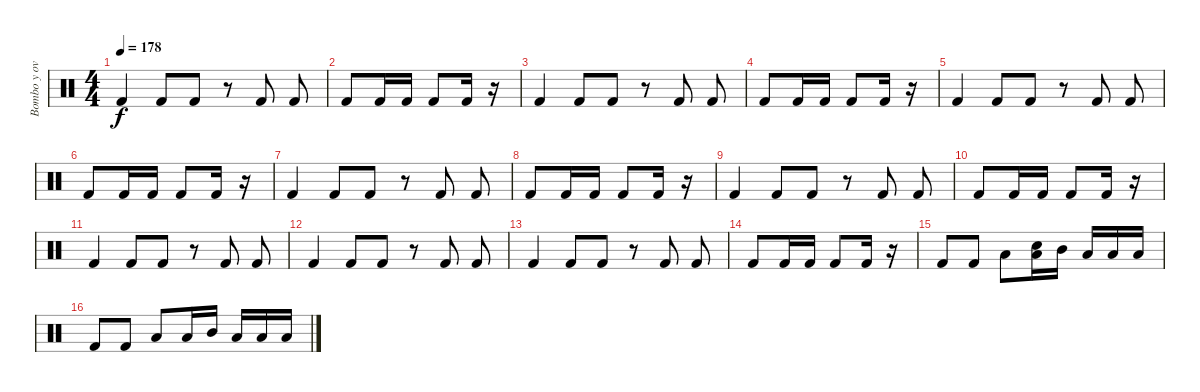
\track ("Bombo y overdubs (bateria)" "Bombo y ov") {instrument percussion}
\staff {score}
\articulation defaults
\ts (4 4)
\tempo 178
\clef neutral
\ks c "Kick (hit) 2".4{dy f} "Kick (hit) 2".8 "Kick (hit) 2".8
r.8 "Kick (hit) 2".8 "Kick (hit) 2".8 |
"Kick (hit) 2".8 "Kick (hit) 2".16 "Kick (hit) 2".16 "Kick (hit) 2".8 "Kick (hit) 2".16 r.16 |
"Kick (hit) 2".4 "Kick (hit) 2".8 "Kick (hit) 2".8 r.8 "Kick (hit) 2".8 "Kick (hit) 2".8 |
"Kick (hit) 2".8 "Kick (hit) 2".16 "Kick (hit) 2".16 "Kick (hit) 2".8 "Kick (hit) 2".16 r.16 |
"Kick (hit) 2".4 "Kick (hit) 2".8 "Kick (hit) 2".8 r.8 "Kick (hit) 2".8 "Kick (hit) 2".8 |
"Kick (hit) 2".8 "Kick (hit) 2".16 "Kick (hit) 2".16 "Kick (hit) 2".8 "Kick (hit) 2".16 r.16 |
"Kick (hit) 2".4 "Kick (hit) 2".8 "Kick (hit) 2".8 r.8 "Kick (hit) 2".8 "Kick (hit) 2".8 |
"Kick (hit) 2".8 "Kick (hit) 2".16 "Kick (hit) 2".16 "Kick (hit) 2".8 "Kick (hit) 2".16 r.16 |
"Kick (hit) 2".4 "Kick (hit) 2".8 "Kick (hit) 2".8 r.8 "Kick (hit) 2".8 "Kick (hit) 2".8 |
"Kick (hit) 2".8 "Kick (hit) 2".16 "Kick (hit) 2".16 "Kick (hit) 2".8 "Kick (hit) 2".16 r.16 |
"Kick (hit) 2".4 "Kick (hit) 2".8 "Kick (hit) 2".8 r.8 "Kick (hit) 2".8 "Kick (hit) 2".8 |
"Kick (hit) 2".4 "Kick (hit) 2".8 "Kick (hit) 2".8 r.8 "Kick (hit) 2".8 "Kick (hit) 2".8 |
"Kick (hit) 2".4 "Kick (hit) 2".8 "Kick (hit) 2".8 r.8 "Kick (hit) 2".8 "Kick (hit) 2".8 |
"Kick (hit) 2".8 "Kick (hit) 2".16 "Kick (hit) 2".16 "Kick (hit) 2".8 "Kick (hit) 2".16 r.16 |
"Kick (hit) 2".8 "Kick (hit) 2".8 "Low Tom (hit)".8 ("Low Tom (hit)" "Snare (hit)").16 "Mid Tom (hit)".16 "Low Tom (hit)".16 "Low Tom (hit)".16 "Low Tom (hit)".16 |
"Kick (hit) 2".8 "Kick (hit) 2".8 "Low Tom (hit)".8 "Low Tom (hit)".16 "Mid Tom (hit)".16 "Low Tom (hit)".16 "Low Tom (hit)".16 "Low Tom (hit)".16
